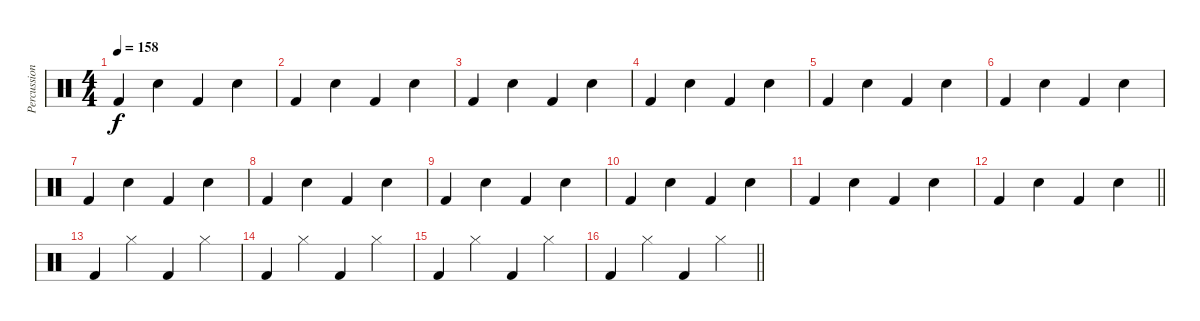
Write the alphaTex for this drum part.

\track ("Percussions" "Percussion") {instrument percussion}
\staff {score}
\articulation defaults
\ts (4 4)
\tempo 158
\clef neutral
\ks c "Kick (hit) 2".4{dy f volume 16} "Electric Snare (hit)".4 "Kick (hit) 2".4 "Electric Snare (hit)".4
|
"Kick (hit) 2".4 "Electric Snare (hit)".4 "Kick (hit) 2".4 "Electric Snare (hit)".4 |
"Kick (hit) 2".4{volume 16} "Electric Snare (hit)".4 "Kick (hit) 2".4 "Electric Snare (hit)".4 |
"Kick (hit) 2".4 "Electric Snare (hit)".4 "Kick (hit) 2".4 "Electric Snare (hit)".4 |
"Kick (hit) 2".4{volume 16} "Electric Snare (hit)".4 "Kick (hit) 2".4 "Electric Snare (hit)".4 |
"Kick (hit) 2".4 "Electric Snare (hit)".4 "Kick (hit) 2".4 "Electric Snare (hit)".4 |
"Kick (hit) 2".4{volume 16} "Electric Snare (hit)".4 "Kick (hit) 2".4 "Electric Snare (hit)".4 |
"Kick (hit) 2".4 "Electric Snare (hit)".4 "Kick (hit) 2".4 "Electric Snare (hit)".4 |
"Kick (hit) 2".4{volume 16} "Electric Snare (hit)".4 "Kick (hit) 2".4 "Electric Snare (hit)".4 |
"Kick (hit) 2".4 "Electric Snare (hit)".4 "Kick (hit) 2".4 "Electric Snare (hit)".4 |
"Kick (hit) 2".4{volume 16} "Electric Snare (hit)".4 "Kick (hit) 2".4 "Electric Snare (hit)".4 |
\barLineRight lightlight "Kick (hit) 2".4{volume 16} "Electric Snare (hit)".4 "Kick (hit) 2".4 "Electric Snare (hit)".4
|
"Kick (hit) 2".4{volume 6} "Hi-Hat (closed)".4 "Kick (hit) 2".4 "Hi-Hat (closed)".4 |
"Kick (hit) 2".4 "Hi-Hat (closed)".4 "Kick (hit) 2".4 "Hi-Hat (closed)".4 |
"Kick (hit) 2".4 "Hi-Hat (closed)".4 "Kick (hit) 2".4 "Hi-Hat (closed)".4 |
\barLineRight lightlight "Kick (hit) 2".4 "Hi-Hat (closed)".4 "Kick (hit) 2".4 "Hi-Hat (closed)".4
